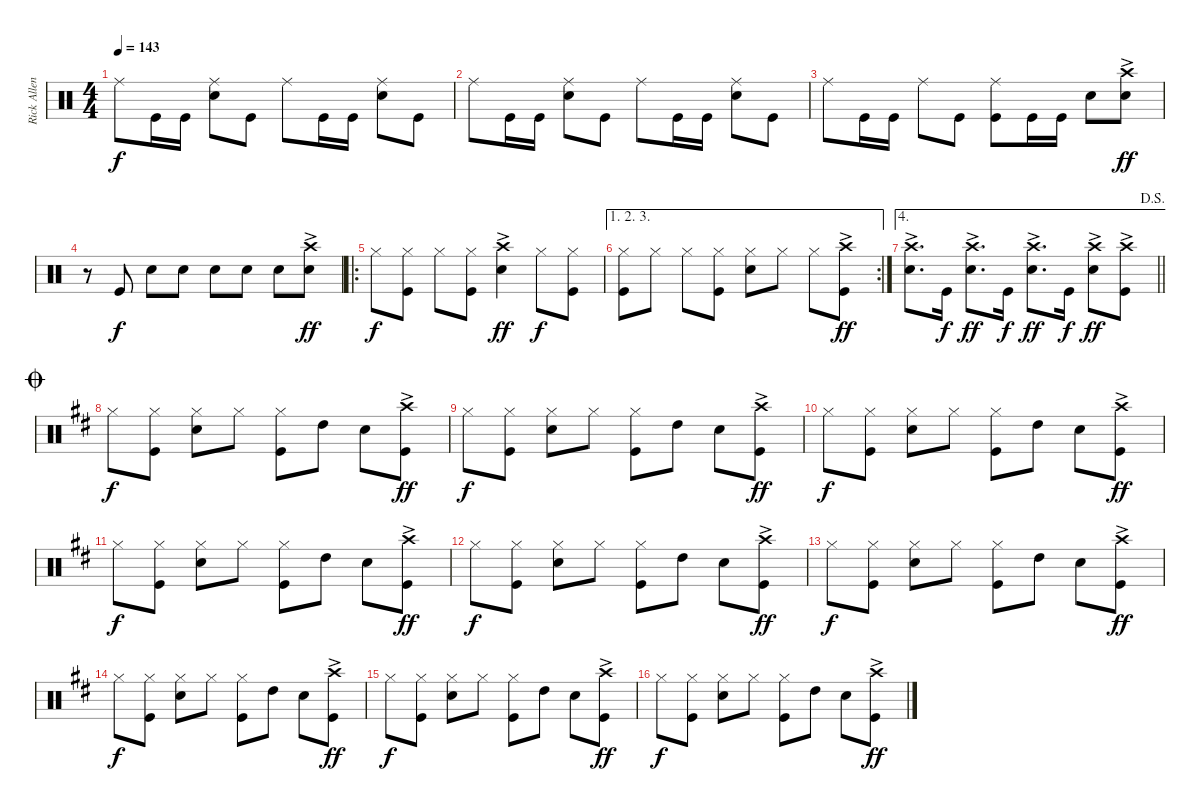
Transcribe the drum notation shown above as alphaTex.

\track ("Rick Allen" "Rick Allen") {instrument percussion}
\staff {score}
\articulation defaults
\ts (4 4)
\tempo 143
\clef neutral
\ks aminor "Ride (middle)".8{dy f} "Kick (hit)".16 "Kick (hit)".16
("Ride (middle)" "Snare (hit) 2").8 "Kick (hit)".8 "Ride (middle)".8 "Kick (hit)".16 "Kick (hit)".16 ("Ride (middle)" "Snare (hit) 2").8 "Kick (hit)".8 |
"Ride (middle)".8 "Kick (hit)".16 "Kick (hit)".16 ("Ride (middle)" "Snare (hit) 2").8 "Kick (hit)".8 "Ride (middle)".8 "Kick (hit)".16 "Kick (hit)".16 ("Ride (middle)" "Snare (hit) 2").8 "Kick (hit)".8 |
"Ride (middle)".8 "Kick (hit)".16 "Kick (hit)".16 "Ride (middle)".8 "Kick (hit)".8 ("Ride (middle)" "Kick (hit)").8 "Kick (hit)".16 "Kick (hit)".16 "Snare (hit) 2".8 ("Crash high (hit)"{ac} "Snare (hit) 2").8{dy ff} |
r.8 "Kick (hit)".8{dy f} "Snare (hit) 2".8 "Snare (hit) 2".8 "Snare (hit) 2".8 "Snare (hit) 2".8 "Snare (hit) 2".8 ("Crash high (hit)"{ac} "Snare (hit) 2").8{dy ff} |
\ro "Hi-Hat (closed)".8{dy f}
("Hi-Hat (closed)" "Kick (hit)").8 "Hi-Hat (closed)".8 ("Hi-Hat (closed)" "Kick (hit)").8 ("Crash high (hit)" "Snare (hit) 2"{ac}).4{dy ff} "Hi-Hat (closed)".8{dy f} ("Hi-Hat (closed)" "Kick (hit)").8 |
\ae (1 2 3)
\rc 2
("Hi-Hat (closed)" "Kick (hit)").8 "Hi-Hat (closed)".8 "Hi-Hat (closed)".8 ("Hi-Hat (closed)" "Kick (hit)").8 ("Hi-Hat (closed)" "Snare (hit) 2").8 "Hi-Hat (closed)".8 "Hi-Hat (closed)".8 ("Crash high (hit)" "Kick (hit)"{ac}).8{dy ff} |
\ae 4
\jump dalsegno
\barLineRight lightlight
("Crash high (hit)"{ac} "Snare (hit) 2").8{d} "Kick (hit)".16{dy f} ("Crash high (hit)"{ac} "Snare (hit) 2").8{d dy ff} "Kick (hit)".16{dy f} ("Crash high (hit)"{ac} "Snare (hit) 2").8{d dy ff} "Kick (hit)".16{dy f} ("Crash high (hit)"{ac} "Snare (hit) 2").8{dy ff} ("Crash high (hit)" "Kick (hit)"{ac}).8 |
\jump coda
\ks d "Hi-Hat (closed)".8{dy f}
("Hi-Hat (closed)" "Kick (hit)").8 ("Hi-Hat (closed)" "Snare (hit) 2").8 "Hi-Hat (closed)".8 ("Hi-Hat (closed)" "Kick (hit)").8 "High Tom (hit)".8 "Snare (hit) 2".8 ("Crash high (hit)" "Kick (hit)"{ac}).8{dy ff} |
"Hi-Hat (closed)".8{dy f} ("Hi-Hat (closed)" "Kick (hit)").8 ("Hi-Hat (closed)" "Snare (hit) 2").8 "Hi-Hat (closed)".8 ("Hi-Hat (closed)" "Kick (hit)").8 "High Tom (hit)".8 "Snare (hit) 2".8 ("Crash high (hit)" "Kick (hit)"{ac}).8{dy ff} |
"Hi-Hat (closed)".8{dy f} ("Hi-Hat (closed)" "Kick (hit)").8 ("Hi-Hat (closed)" "Snare (hit) 2").8 "Hi-Hat (closed)".8 ("Hi-Hat (closed)" "Kick (hit)").8 "High Tom (hit)".8 "Snare (hit) 2".8 ("Crash high (hit)" "Kick (hit)"{ac}).8{dy ff} |
"Hi-Hat (closed)".8{dy f} ("Hi-Hat (closed)" "Kick (hit)").8 ("Hi-Hat (closed)" "Snare (hit) 2").8 "Hi-Hat (closed)".8 ("Hi-Hat (closed)" "Kick (hit)").8 "High Tom (hit)".8 "Snare (hit) 2".8 ("Crash high (hit)" "Kick (hit)"{ac}).8{dy ff} |
"Hi-Hat (closed)".8{dy f} ("Hi-Hat (closed)" "Kick (hit)").8 ("Hi-Hat (closed)" "Snare (hit) 2").8 "Hi-Hat (closed)".8 ("Hi-Hat (closed)" "Kick (hit)").8 "High Tom (hit)".8 "Snare (hit) 2".8 ("Crash high (hit)" "Kick (hit)"{ac}).8{dy ff} |
"Hi-Hat (closed)".8{dy f} ("Hi-Hat (closed)" "Kick (hit)").8 ("Hi-Hat (closed)" "Snare (hit) 2").8 "Hi-Hat (closed)".8 ("Hi-Hat (closed)" "Kick (hit)").8 "High Tom (hit)".8 "Snare (hit) 2".8 ("Crash high (hit)" "Kick (hit)"{ac}).8{dy ff} |
"Hi-Hat (closed)".8{dy f} ("Hi-Hat (closed)" "Kick (hit)").8 ("Hi-Hat (closed)" "Snare (hit) 2").8 "Hi-Hat (closed)".8 ("Hi-Hat (closed)" "Kick (hit)").8 "High Tom (hit)".8 "Snare (hit) 2".8 ("Crash high (hit)" "Kick (hit)"{ac}).8{dy ff} |
"Hi-Hat (closed)".8{dy f} ("Hi-Hat (closed)" "Kick (hit)").8 ("Hi-Hat (closed)" "Snare (hit) 2").8 "Hi-Hat (closed)".8 ("Hi-Hat (closed)" "Kick (hit)").8 "High Tom (hit)".8 "Snare (hit) 2".8 ("Crash high (hit)" "Kick (hit)"{ac}).8{dy ff} |
"Hi-Hat (closed)".8{dy f} ("Hi-Hat (closed)" "Kick (hit)").8 ("Hi-Hat (closed)" "Snare (hit) 2").8 "Hi-Hat (closed)".8 ("Hi-Hat (closed)" "Kick (hit)").8 "High Tom (hit)".8 "Snare (hit) 2".8 ("Crash high (hit)" "Kick (hit)"{ac}).8{dy ff}
